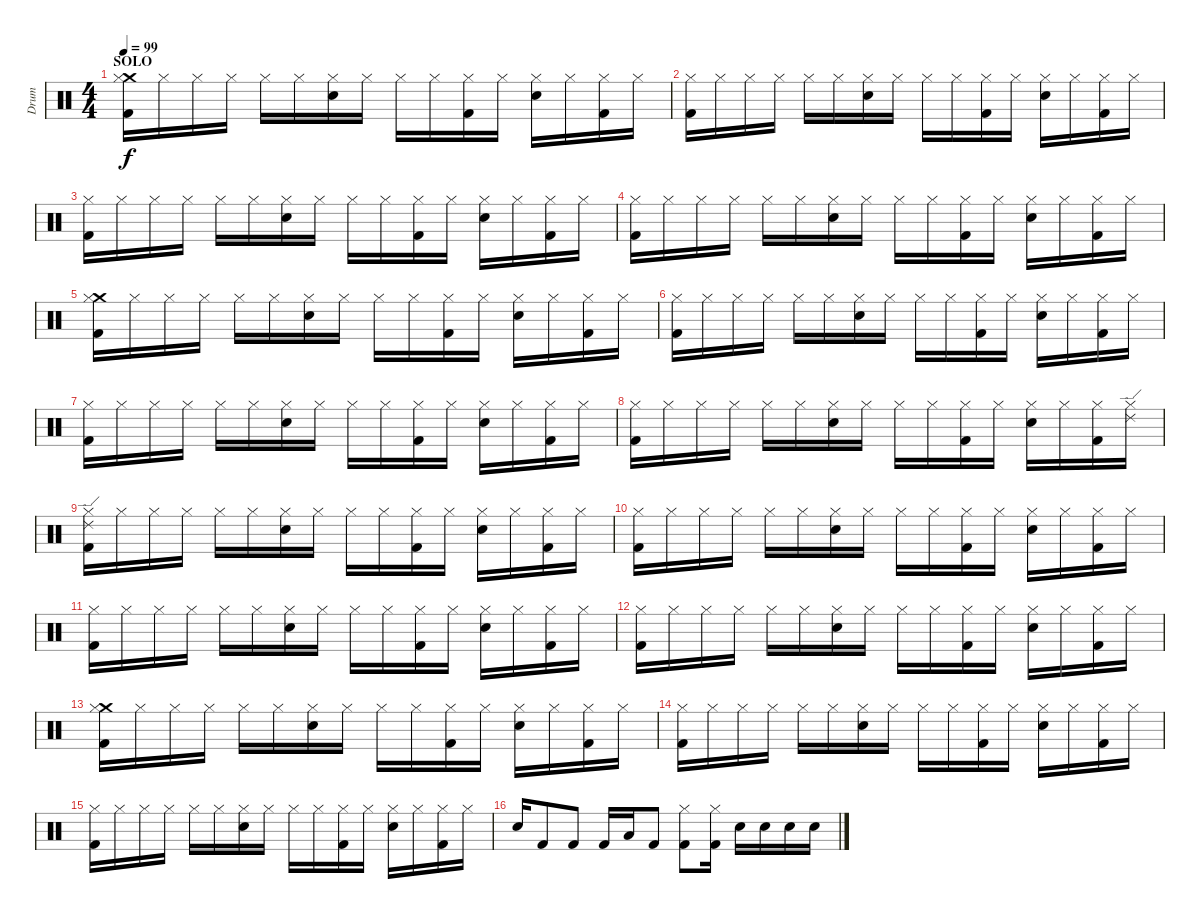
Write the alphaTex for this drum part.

\track ("Drum" "Drum") {instrument percussion}
\staff {score}
\articulation defaults
\ts (4 4)
\section ("" "SOLO")
\tempo 99
\clef neutral
\ks c
("Crash medium (hit)" "Hi-Hat (closed)" "Kick (hit) 2").16{dy f} "Hi-Hat (closed)".16 "Hi-Hat (closed)".16 "Hi-Hat (closed)".16 "Hi-Hat (closed)".16 "Hi-Hat (closed)".16 ("Hi-Hat (closed)" "Electric Snare (hit)").16 "Hi-Hat (closed)".16 "Hi-Hat (closed)".16 "Hi-Hat (closed)".16 ("Hi-Hat (closed)" "Kick (hit) 2").16 "Hi-Hat (closed)".16 ("Hi-Hat (closed)" "Electric Snare (hit)").16 "Hi-Hat (closed)".16 ("Hi-Hat (closed)" "Kick (hit) 2").16 "Hi-Hat (closed)".16 |
("Hi-Hat (closed)" "Kick (hit) 2").16 "Hi-Hat (closed)".16 "Hi-Hat (closed)".16 "Hi-Hat (closed)".16 "Hi-Hat (closed)".16 "Hi-Hat (closed)".16 ("Hi-Hat (closed)" "Electric Snare (hit)").16 "Hi-Hat (closed)".16 "Hi-Hat (closed)".16 "Hi-Hat (closed)".16 ("Hi-Hat (closed)" "Kick (hit) 2").16 "Hi-Hat (closed)".16 ("Hi-Hat (closed)" "Electric Snare (hit)").16 "Hi-Hat (closed)".16 ("Hi-Hat (closed)" "Kick (hit) 2").16 "Hi-Hat (closed)".16 |
("Hi-Hat (closed)" "Kick (hit) 2").16 "Hi-Hat (closed)".16 "Hi-Hat (closed)".16 "Hi-Hat (closed)".16 "Hi-Hat (closed)".16 "Hi-Hat (closed)".16 ("Hi-Hat (closed)" "Electric Snare (hit)").16 "Hi-Hat (closed)".16 "Hi-Hat (closed)".16 "Hi-Hat (closed)".16 ("Hi-Hat (closed)" "Kick (hit) 2").16 "Hi-Hat (closed)".16 ("Hi-Hat (closed)" "Electric Snare (hit)").16 "Hi-Hat (closed)".16 ("Hi-Hat (closed)" "Kick (hit) 2").16 "Hi-Hat (closed)".16 |
("Hi-Hat (closed)" "Kick (hit) 2").16 "Hi-Hat (closed)".16 "Hi-Hat (closed)".16 "Hi-Hat (closed)".16 "Hi-Hat (closed)".16 "Hi-Hat (closed)".16 ("Hi-Hat (closed)" "Electric Snare (hit)").16 "Hi-Hat (closed)".16 "Hi-Hat (closed)".16 "Hi-Hat (closed)".16 ("Hi-Hat (closed)" "Kick (hit) 2").16 "Hi-Hat (closed)".16 ("Hi-Hat (closed)" "Electric Snare (hit)").16 "Hi-Hat (closed)".16 ("Hi-Hat (closed)" "Kick (hit) 2").16 "Hi-Hat (closed)".16 |
("Crash medium (hit)" "Hi-Hat (closed)" "Kick (hit) 2").16 "Hi-Hat (closed)".16 "Hi-Hat (closed)".16 "Hi-Hat (closed)".16 "Hi-Hat (closed)".16 "Hi-Hat (closed)".16 ("Hi-Hat (closed)" "Electric Snare (hit)").16 "Hi-Hat (closed)".16 "Hi-Hat (closed)".16 "Hi-Hat (closed)".16 ("Hi-Hat (closed)" "Kick (hit) 2").16 "Hi-Hat (closed)".16 ("Hi-Hat (closed)" "Electric Snare (hit)").16 "Hi-Hat (closed)".16 ("Hi-Hat (closed)" "Kick (hit) 2").16 "Hi-Hat (closed)".16 |
("Hi-Hat (closed)" "Kick (hit) 2").16 "Hi-Hat (closed)".16 "Hi-Hat (closed)".16 "Hi-Hat (closed)".16 "Hi-Hat (closed)".16 "Hi-Hat (closed)".16 ("Hi-Hat (closed)" "Electric Snare (hit)").16 "Hi-Hat (closed)".16 "Hi-Hat (closed)".16 "Hi-Hat (closed)".16 ("Hi-Hat (closed)" "Kick (hit) 2").16 "Hi-Hat (closed)".16 ("Hi-Hat (closed)" "Electric Snare (hit)").16 "Hi-Hat (closed)".16 ("Hi-Hat (closed)" "Kick (hit) 2").16 "Hi-Hat (closed)".16 |
("Hi-Hat (closed)" "Kick (hit) 2").16 "Hi-Hat (closed)".16 "Hi-Hat (closed)".16 "Hi-Hat (closed)".16 "Hi-Hat (closed)".16 "Hi-Hat (closed)".16 ("Hi-Hat (closed)" "Electric Snare (hit)").16 "Hi-Hat (closed)".16 "Hi-Hat (closed)".16 "Hi-Hat (closed)".16 ("Hi-Hat (closed)" "Kick (hit) 2").16 "Hi-Hat (closed)".16 ("Hi-Hat (closed)" "Electric Snare (hit)").16 "Hi-Hat (closed)".16 ("Hi-Hat (closed)" "Kick (hit) 2").16 "Hi-Hat (closed)".16 |
("Hi-Hat (closed)" "Kick (hit) 2").16 "Hi-Hat (closed)".16 "Hi-Hat (closed)".16 "Hi-Hat (closed)".16 "Hi-Hat (closed)".16 "Hi-Hat (closed)".16 ("Hi-Hat (closed)" "Electric Snare (hit)").16 "Hi-Hat (closed)".16 "Hi-Hat (closed)".16 "Hi-Hat (closed)".16 ("Hi-Hat (closed)" "Kick (hit) 2").16 "Hi-Hat (closed)".16 ("Hi-Hat (closed)" "Electric Snare (hit)").16 "Hi-Hat (closed)".16 ("Hi-Hat (closed)" "Kick (hit) 2").16 ("Ride (edge) 2" "Hi-Hat (closed)").16 |
("Ride (edge) 2" "Hi-Hat (closed)" "Kick (hit) 2").16 "Hi-Hat (closed)".16 "Hi-Hat (closed)".16 "Hi-Hat (closed)".16 "Hi-Hat (closed)".16 "Hi-Hat (closed)".16 ("Hi-Hat (closed)" "Electric Snare (hit)").16 "Hi-Hat (closed)".16 "Hi-Hat (closed)".16 "Hi-Hat (closed)".16 ("Hi-Hat (closed)" "Kick (hit) 2").16 "Hi-Hat (closed)".16 ("Hi-Hat (closed)" "Electric Snare (hit)").16 "Hi-Hat (closed)".16 ("Hi-Hat (closed)" "Kick (hit) 2").16 "Hi-Hat (closed)".16 |
("Hi-Hat (closed)" "Kick (hit) 2").16 "Hi-Hat (closed)".16 "Hi-Hat (closed)".16 "Hi-Hat (closed)".16 "Hi-Hat (closed)".16 "Hi-Hat (closed)".16 ("Hi-Hat (closed)" "Electric Snare (hit)").16 "Hi-Hat (closed)".16 "Hi-Hat (closed)".16 "Hi-Hat (closed)".16 ("Hi-Hat (closed)" "Kick (hit) 2").16 "Hi-Hat (closed)".16 ("Hi-Hat (closed)" "Electric Snare (hit)").16 "Hi-Hat (closed)".16 ("Hi-Hat (closed)" "Kick (hit) 2").16 "Hi-Hat (closed)".16 |
("Hi-Hat (closed)" "Kick (hit) 2").16 "Hi-Hat (closed)".16 "Hi-Hat (closed)".16 "Hi-Hat (closed)".16 "Hi-Hat (closed)".16 "Hi-Hat (closed)".16 ("Hi-Hat (closed)" "Electric Snare (hit)").16 "Hi-Hat (closed)".16 "Hi-Hat (closed)".16 "Hi-Hat (closed)".16 ("Hi-Hat (closed)" "Kick (hit) 2").16 "Hi-Hat (closed)".16 ("Hi-Hat (closed)" "Electric Snare (hit)").16 "Hi-Hat (closed)".16 ("Hi-Hat (closed)" "Kick (hit) 2").16 "Hi-Hat (closed)".16 |
("Hi-Hat (closed)" "Kick (hit) 2").16 "Hi-Hat (closed)".16 "Hi-Hat (closed)".16 "Hi-Hat (closed)".16 "Hi-Hat (closed)".16 "Hi-Hat (closed)".16 ("Hi-Hat (closed)" "Electric Snare (hit)").16 "Hi-Hat (closed)".16 "Hi-Hat (closed)".16 "Hi-Hat (closed)".16 ("Hi-Hat (closed)" "Kick (hit) 2").16 "Hi-Hat (closed)".16 ("Hi-Hat (closed)" "Electric Snare (hit)").16 "Hi-Hat (closed)".16 ("Hi-Hat (closed)" "Kick (hit) 2").16 "Hi-Hat (closed)".16 |
("Crash medium (hit)" "Hi-Hat (closed)" "Kick (hit) 2").16 "Hi-Hat (closed)".16 "Hi-Hat (closed)".16 "Hi-Hat (closed)".16 "Hi-Hat (closed)".16 "Hi-Hat (closed)".16 ("Hi-Hat (closed)" "Electric Snare (hit)").16 "Hi-Hat (closed)".16 "Hi-Hat (closed)".16 "Hi-Hat (closed)".16 ("Hi-Hat (closed)" "Kick (hit) 2").16 "Hi-Hat (closed)".16 ("Hi-Hat (closed)" "Electric Snare (hit)").16 "Hi-Hat (closed)".16 ("Hi-Hat (closed)" "Kick (hit) 2").16 "Hi-Hat (closed)".16 |
("Hi-Hat (closed)" "Kick (hit) 2").16 "Hi-Hat (closed)".16 "Hi-Hat (closed)".16 "Hi-Hat (closed)".16 "Hi-Hat (closed)".16 "Hi-Hat (closed)".16 ("Hi-Hat (closed)" "Electric Snare (hit)").16 "Hi-Hat (closed)".16 "Hi-Hat (closed)".16 "Hi-Hat (closed)".16 ("Hi-Hat (closed)" "Kick (hit) 2").16 "Hi-Hat (closed)".16 ("Hi-Hat (closed)" "Electric Snare (hit)").16 "Hi-Hat (closed)".16 ("Hi-Hat (closed)" "Kick (hit) 2").16 "Hi-Hat (closed)".16 |
("Hi-Hat (closed)" "Kick (hit) 2").16 "Hi-Hat (closed)".16 "Hi-Hat (closed)".16 "Hi-Hat (closed)".16 "Hi-Hat (closed)".16 "Hi-Hat (closed)".16 ("Hi-Hat (closed)" "Electric Snare (hit)").16 "Hi-Hat (closed)".16 "Hi-Hat (closed)".16 "Hi-Hat (closed)".16 ("Hi-Hat (closed)" "Kick (hit) 2").16 "Hi-Hat (closed)".16 ("Hi-Hat (closed)" "Electric Snare (hit)").16 "Hi-Hat (closed)".16 ("Hi-Hat (closed)" "Kick (hit) 2").16 "Hi-Hat (closed)".16 |
"Electric Snare (hit)".16 "Kick (hit) 2".8 "Kick (hit) 2".8 "Kick (hit) 2".16 "Low Floor Tom (hit)".16 "Kick (hit) 2".8 ("Hi-Hat (closed)" "Kick (hit) 2").8 ("Hi-Hat (closed)" "Kick (hit) 2").16 "Electric Snare (hit)".16 "Electric Snare (hit)".16 "Electric Snare (hit)".16 "Electric Snare (hit)".16
